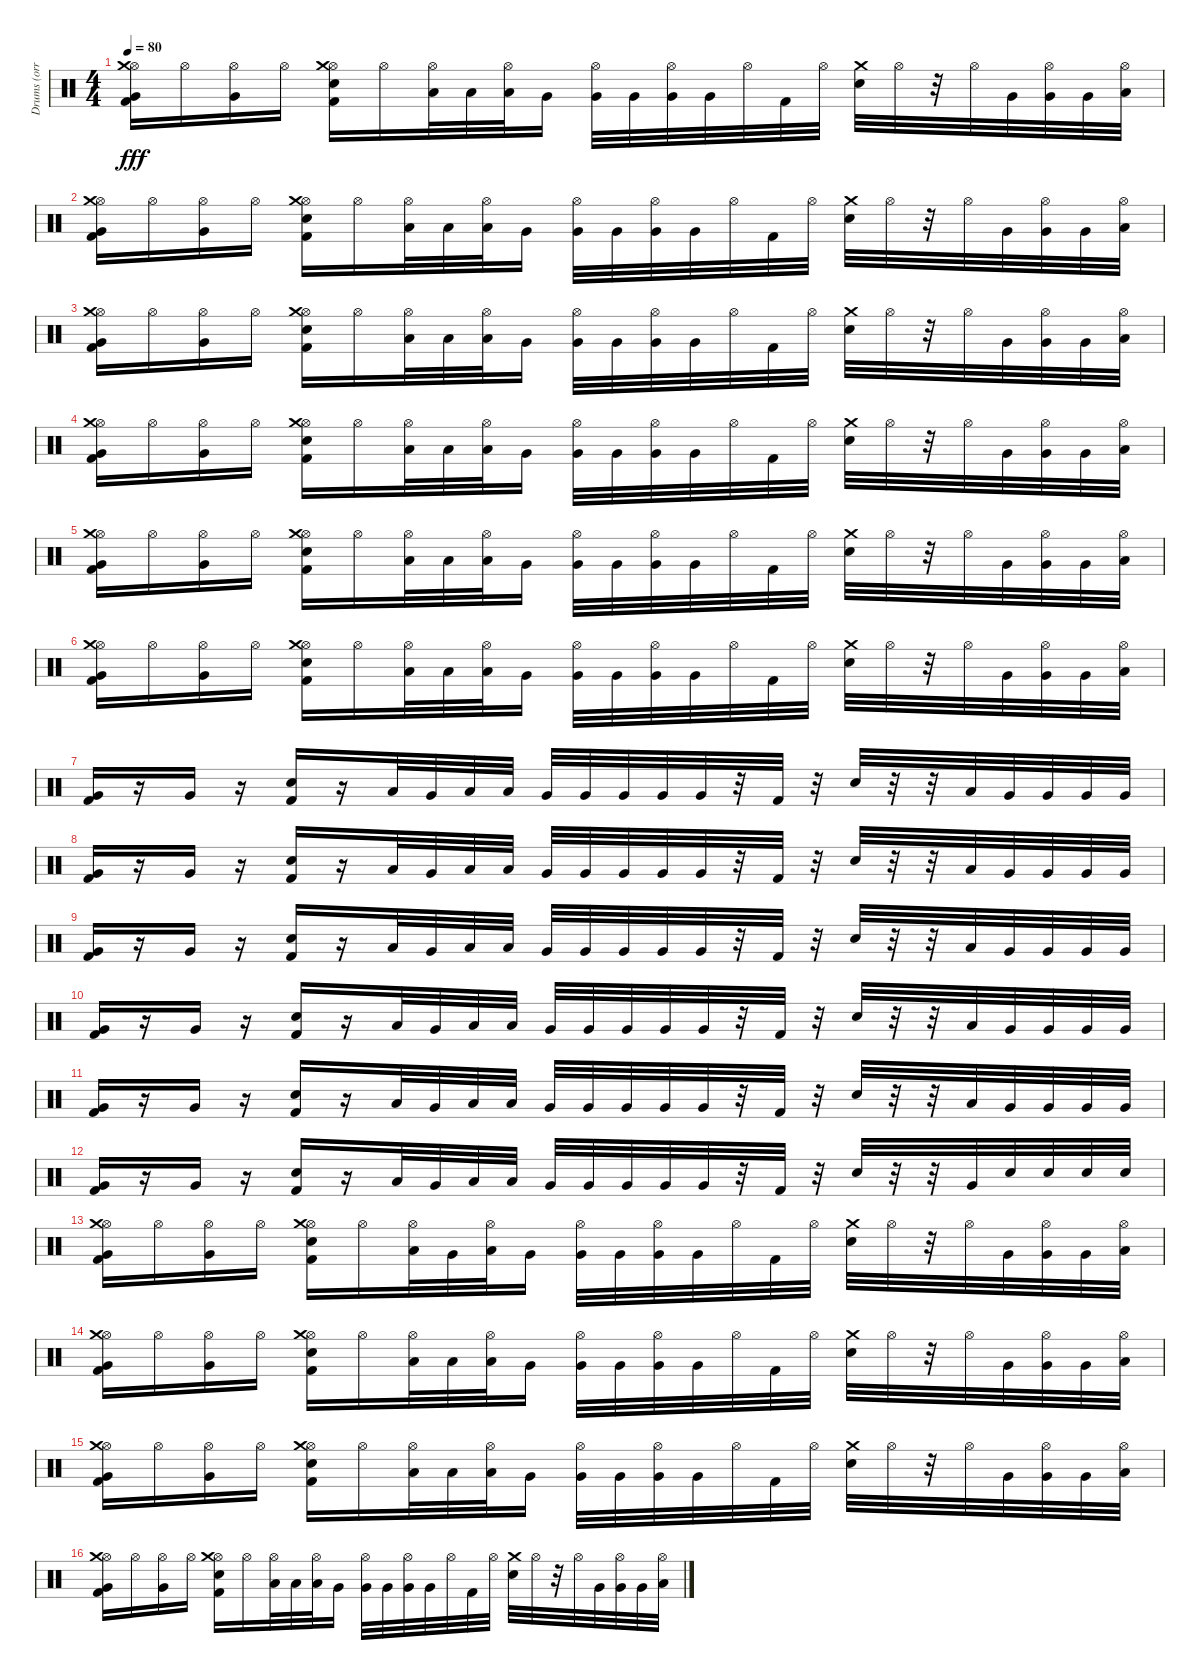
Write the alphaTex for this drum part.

\track ("Drums (orri páll dırason)" "Drums (orr") {instrument percussion}
\staff {score}
\articulation defaults
\ts (4 4)
\tempo 80
\clef neutral
\ks c
("Kick (hit) 2" "Hi-Hat (open)" "Crash medium (hit)" "Very Low Tom (hit)").16{dy fff} "Hi-Hat (open)".16 ("Hi-Hat (open)" "Very Low Tom (hit)").16 "Hi-Hat (open)".16 ("Kick (hit) 2" "Hi-Hat (open)" "Crash medium (hit)" "Electric Snare (hit)").16 "Hi-Hat (open)".16 ("Hi-Hat (open)" "Low Floor Tom (hit)").32 "Low Floor Tom (hit)".32 ("Hi-Hat (open)" "Low Floor Tom (hit)").32 "Very Low Tom (hit)".16 ("Hi-Hat (open)" "Very Low Tom (hit)").32 "Very Low Tom (hit)".32 ("Hi-Hat (open)" "Very Low Tom (hit)").32 "Very Low Tom (hit)".32 "Hi-Hat (open)".32 "Kick (hit) 2".32 "Hi-Hat (open)".32 ("Crash medium (hit)" "Electric Snare (hit)").32 "Hi-Hat (open)".32 r.32 "Hi-Hat (open)".32 "Very Low Tom (hit)".32 ("Hi-Hat (open)" "Very Low Tom (hit)").32 "Very Low Tom (hit)".32 ("Hi-Hat (open)" "Low Floor Tom (hit)").32 |
("Kick (hit) 2" "Hi-Hat (open)" "Crash medium (hit)" "Very Low Tom (hit)").16 "Hi-Hat (open)".16 ("Hi-Hat (open)" "Very Low Tom (hit)").16 "Hi-Hat (open)".16 ("Kick (hit) 2" "Hi-Hat (open)" "Crash medium (hit)" "Electric Snare (hit)").16 "Hi-Hat (open)".16 ("Hi-Hat (open)" "Low Floor Tom (hit)").32 "Low Floor Tom (hit)".32 ("Hi-Hat (open)" "Low Floor Tom (hit)").32 "Very Low Tom (hit)".16 ("Hi-Hat (open)" "Very Low Tom (hit)").32 "Very Low Tom (hit)".32 ("Hi-Hat (open)" "Very Low Tom (hit)").32 "Very Low Tom (hit)".32 "Hi-Hat (open)".32 "Kick (hit) 2".32 "Hi-Hat (open)".32 ("Crash medium (hit)" "Electric Snare (hit)").32 "Hi-Hat (open)".32 r.32 "Hi-Hat (open)".32 "Very Low Tom (hit)".32 ("Hi-Hat (open)" "Very Low Tom (hit)").32 "Very Low Tom (hit)".32 ("Hi-Hat (open)" "Low Floor Tom (hit)").32 |
("Kick (hit) 2" "Hi-Hat (open)" "Crash medium (hit)" "Very Low Tom (hit)").16 "Hi-Hat (open)".16 ("Hi-Hat (open)" "Very Low Tom (hit)").16 "Hi-Hat (open)".16 ("Kick (hit) 2" "Hi-Hat (open)" "Crash medium (hit)" "Electric Snare (hit)").16 "Hi-Hat (open)".16 ("Hi-Hat (open)" "Low Floor Tom (hit)").32 "Low Floor Tom (hit)".32 ("Hi-Hat (open)" "Low Floor Tom (hit)").32 "Very Low Tom (hit)".16 ("Hi-Hat (open)" "Very Low Tom (hit)").32 "Very Low Tom (hit)".32 ("Hi-Hat (open)" "Very Low Tom (hit)").32 "Very Low Tom (hit)".32 "Hi-Hat (open)".32 "Kick (hit) 2".32 "Hi-Hat (open)".32 ("Crash medium (hit)" "Electric Snare (hit)").32 "Hi-Hat (open)".32 r.32 "Hi-Hat (open)".32 "Very Low Tom (hit)".32 ("Hi-Hat (open)" "Very Low Tom (hit)").32 "Very Low Tom (hit)".32 ("Hi-Hat (open)" "Low Floor Tom (hit)").32 |
("Kick (hit) 2" "Hi-Hat (open)" "Crash medium (hit)" "Very Low Tom (hit)").16 "Hi-Hat (open)".16 ("Hi-Hat (open)" "Very Low Tom (hit)").16 "Hi-Hat (open)".16 ("Kick (hit) 2" "Hi-Hat (open)" "Crash medium (hit)" "Electric Snare (hit)").16 "Hi-Hat (open)".16 ("Hi-Hat (open)" "Low Floor Tom (hit)").32 "Low Floor Tom (hit)".32 ("Hi-Hat (open)" "Low Floor Tom (hit)").32 "Very Low Tom (hit)".16 ("Hi-Hat (open)" "Very Low Tom (hit)").32 "Very Low Tom (hit)".32 ("Hi-Hat (open)" "Very Low Tom (hit)").32 "Very Low Tom (hit)".32 "Hi-Hat (open)".32 "Kick (hit) 2".32 "Hi-Hat (open)".32 ("Crash medium (hit)" "Electric Snare (hit)").32 "Hi-Hat (open)".32 r.32 "Hi-Hat (open)".32 "Very Low Tom (hit)".32 ("Hi-Hat (open)" "Very Low Tom (hit)").32 "Very Low Tom (hit)".32 ("Hi-Hat (open)" "Low Floor Tom (hit)").32 |
("Kick (hit) 2" "Hi-Hat (open)" "Crash medium (hit)" "Very Low Tom (hit)").16 "Hi-Hat (open)".16 ("Hi-Hat (open)" "Very Low Tom (hit)").16 "Hi-Hat (open)".16 ("Kick (hit) 2" "Hi-Hat (open)" "Crash medium (hit)" "Electric Snare (hit)").16 "Hi-Hat (open)".16 ("Hi-Hat (open)" "Low Floor Tom (hit)").32 "Low Floor Tom (hit)".32 ("Hi-Hat (open)" "Low Floor Tom (hit)").32 "Very Low Tom (hit)".16 ("Hi-Hat (open)" "Very Low Tom (hit)").32 "Very Low Tom (hit)".32 ("Hi-Hat (open)" "Very Low Tom (hit)").32 "Very Low Tom (hit)".32 "Hi-Hat (open)".32 "Kick (hit) 2".32 "Hi-Hat (open)".32 ("Crash medium (hit)" "Electric Snare (hit)").32 "Hi-Hat (open)".32 r.32 "Hi-Hat (open)".32 "Very Low Tom (hit)".32 ("Hi-Hat (open)" "Very Low Tom (hit)").32 "Very Low Tom (hit)".32 ("Hi-Hat (open)" "Low Floor Tom (hit)").32 |
("Kick (hit) 2" "Hi-Hat (open)" "Crash medium (hit)" "Very Low Tom (hit)").16 "Hi-Hat (open)".16 ("Hi-Hat (open)" "Very Low Tom (hit)").16 "Hi-Hat (open)".16 ("Kick (hit) 2" "Hi-Hat (open)" "Crash medium (hit)" "Electric Snare (hit)").16 "Hi-Hat (open)".16 ("Hi-Hat (open)" "Low Floor Tom (hit)").32 "Low Floor Tom (hit)".32 ("Hi-Hat (open)" "Low Floor Tom (hit)").32 "Very Low Tom (hit)".16 ("Hi-Hat (open)" "Very Low Tom (hit)").32 "Very Low Tom (hit)".32 ("Hi-Hat (open)" "Very Low Tom (hit)").32 "Very Low Tom (hit)".32 "Hi-Hat (open)".32 "Kick (hit) 2".32 "Hi-Hat (open)".32 ("Crash medium (hit)" "Electric Snare (hit)").32 "Hi-Hat (open)".32 r.32 "Hi-Hat (open)".32 "Very Low Tom (hit)".32 ("Hi-Hat (open)" "Very Low Tom (hit)").32 "Very Low Tom (hit)".32 ("Hi-Hat (open)" "Low Floor Tom (hit)").32 |
("Kick (hit) 2" "Very Low Tom (hit)").16 r.16 "Very Low Tom (hit)".16 r.16 ("Kick (hit) 2" "Electric Snare (hit)").16 r.16 "Low Floor Tom (hit)".32 "Very Low Tom (hit)".32 "Low Floor Tom (hit)".32 "Low Floor Tom (hit)".32 "Very Low Tom (hit)".32 "Very Low Tom (hit)".32 "Very Low Tom (hit)".32 "Very Low Tom (hit)".32 "Very Low Tom (hit)".32 r.32 "Kick (hit) 2".32 r.32 "Electric Snare (hit)".32 r.32 r.32 "Low Floor Tom (hit)".32 "Very Low Tom (hit)".32 "Very Low Tom (hit)".32 "Very Low Tom (hit)".32 "Very Low Tom (hit)".32 |
("Kick (hit) 2" "Very Low Tom (hit)").16 r.16 "Very Low Tom (hit)".16 r.16 ("Kick (hit) 2" "Electric Snare (hit)").16 r.16 "Low Floor Tom (hit)".32 "Very Low Tom (hit)".32 "Low Floor Tom (hit)".32 "Low Floor Tom (hit)".32 "Very Low Tom (hit)".32 "Very Low Tom (hit)".32 "Very Low Tom (hit)".32 "Very Low Tom (hit)".32 "Very Low Tom (hit)".32 r.32 "Kick (hit) 2".32 r.32 "Electric Snare (hit)".32 r.32 r.32 "Low Floor Tom (hit)".32 "Very Low Tom (hit)".32 "Very Low Tom (hit)".32 "Very Low Tom (hit)".32 "Very Low Tom (hit)".32 |
("Kick (hit) 2" "Very Low Tom (hit)").16 r.16 "Very Low Tom (hit)".16 r.16 ("Kick (hit) 2" "Electric Snare (hit)").16 r.16 "Low Floor Tom (hit)".32 "Very Low Tom (hit)".32 "Low Floor Tom (hit)".32 "Low Floor Tom (hit)".32 "Very Low Tom (hit)".32 "Very Low Tom (hit)".32 "Very Low Tom (hit)".32 "Very Low Tom (hit)".32 "Very Low Tom (hit)".32 r.32 "Kick (hit) 2".32 r.32 "Electric Snare (hit)".32 r.32 r.32 "Low Floor Tom (hit)".32 "Very Low Tom (hit)".32 "Very Low Tom (hit)".32 "Very Low Tom (hit)".32 "Very Low Tom (hit)".32 |
("Kick (hit) 2" "Very Low Tom (hit)").16 r.16 "Very Low Tom (hit)".16 r.16 ("Kick (hit) 2" "Electric Snare (hit)").16 r.16 "Low Floor Tom (hit)".32 "Very Low Tom (hit)".32 "Low Floor Tom (hit)".32 "Low Floor Tom (hit)".32 "Very Low Tom (hit)".32 "Very Low Tom (hit)".32 "Very Low Tom (hit)".32 "Very Low Tom (hit)".32 "Very Low Tom (hit)".32 r.32 "Kick (hit) 2".32 r.32 "Electric Snare (hit)".32 r.32 r.32 "Low Floor Tom (hit)".32 "Very Low Tom (hit)".32 "Very Low Tom (hit)".32 "Very Low Tom (hit)".32 "Very Low Tom (hit)".32 |
("Kick (hit) 2" "Very Low Tom (hit)").16 r.16 "Very Low Tom (hit)".16 r.16 ("Kick (hit) 2" "Electric Snare (hit)").16 r.16 "Low Floor Tom (hit)".32 "Very Low Tom (hit)".32 "Low Floor Tom (hit)".32 "Low Floor Tom (hit)".32 "Very Low Tom (hit)".32 "Very Low Tom (hit)".32 "Very Low Tom (hit)".32 "Very Low Tom (hit)".32 "Very Low Tom (hit)".32 r.32 "Kick (hit) 2".32 r.32 "Electric Snare (hit)".32 r.32 r.32 "Low Floor Tom (hit)".32 "Very Low Tom (hit)".32 "Very Low Tom (hit)".32 "Very Low Tom (hit)".32 "Very Low Tom (hit)".32 |
("Kick (hit) 2" "Very Low Tom (hit)").16 r.16 "Very Low Tom (hit)".16 r.16 ("Kick (hit) 2" "Electric Snare (hit)").16 r.16 "Low Floor Tom (hit)".32 "Very Low Tom (hit)".32 "Low Floor Tom (hit)".32 "Low Floor Tom (hit)".32 "Very Low Tom (hit)".32 "Very Low Tom (hit)".32 "Very Low Tom (hit)".32 "Very Low Tom (hit)".32 "Very Low Tom (hit)".32 r.32 "Kick (hit) 2".32 r.32 "Electric Snare (hit)".32 r.32 r.32 "Very Low Tom (hit)".32 "Electric Snare (hit)".32 "Electric Snare (hit)".32 "Electric Snare (hit)".32 "Electric Snare (hit)".32 |
("Kick (hit) 2" "Hi-Hat (open)" "Crash medium (hit)" "Very Low Tom (hit)").16 "Hi-Hat (open)".16 ("Hi-Hat (open)" "Very Low Tom (hit)").16 "Hi-Hat (open)".16 ("Kick (hit) 2" "Hi-Hat (open)" "Crash medium (hit)" "Electric Snare (hit)").16 "Hi-Hat (open)".16 ("Hi-Hat (open)" "Low Floor Tom (hit)").32 "Very Low Tom (hit)".32 ("Hi-Hat (open)" "Low Floor Tom (hit)").32 "Very Low Tom (hit)".16 ("Hi-Hat (open)" "Very Low Tom (hit)").32 "Very Low Tom (hit)".32 ("Hi-Hat (open)" "Very Low Tom (hit)").32 "Very Low Tom (hit)".32 "Hi-Hat (open)".32 "Kick (hit) 2".32 "Hi-Hat (open)".32 ("Crash medium (hit)" "Electric Snare (hit)").32 "Hi-Hat (open)".32 r.32 "Hi-Hat (open)".32 "Very Low Tom (hit)".32 ("Hi-Hat (open)" "Very Low Tom (hit)").32 "Very Low Tom (hit)".32 ("Hi-Hat (open)" "Low Floor Tom (hit)").32 |
("Kick (hit) 2" "Hi-Hat (open)" "Crash medium (hit)" "Very Low Tom (hit)").16 "Hi-Hat (open)".16 ("Hi-Hat (open)" "Very Low Tom (hit)").16 "Hi-Hat (open)".16 ("Kick (hit) 2" "Hi-Hat (open)" "Crash medium (hit)" "Electric Snare (hit)").16 "Hi-Hat (open)".16 ("Hi-Hat (open)" "Low Floor Tom (hit)").32 "Low Floor Tom (hit)".32 ("Hi-Hat (open)" "Low Floor Tom (hit)").32 "Very Low Tom (hit)".16 ("Hi-Hat (open)" "Very Low Tom (hit)").32 "Very Low Tom (hit)".32 ("Hi-Hat (open)" "Very Low Tom (hit)").32 "Very Low Tom (hit)".32 "Hi-Hat (open)".32 "Kick (hit) 2".32 "Hi-Hat (open)".32 ("Crash medium (hit)" "Electric Snare (hit)").32 "Hi-Hat (open)".32 r.32 "Hi-Hat (open)".32 "Very Low Tom (hit)".32 ("Hi-Hat (open)" "Very Low Tom (hit)").32 "Very Low Tom (hit)".32 ("Hi-Hat (open)" "Low Floor Tom (hit)").32 |
("Kick (hit) 2" "Hi-Hat (open)" "Crash medium (hit)" "Very Low Tom (hit)").16 "Hi-Hat (open)".16 ("Hi-Hat (open)" "Very Low Tom (hit)").16 "Hi-Hat (open)".16 ("Kick (hit) 2" "Hi-Hat (open)" "Crash medium (hit)" "Electric Snare (hit)").16 "Hi-Hat (open)".16 ("Hi-Hat (open)" "Low Floor Tom (hit)").32 "Low Floor Tom (hit)".32 ("Hi-Hat (open)" "Low Floor Tom (hit)").32 "Very Low Tom (hit)".16 ("Hi-Hat (open)" "Very Low Tom (hit)").32 "Very Low Tom (hit)".32 ("Hi-Hat (open)" "Very Low Tom (hit)").32 "Very Low Tom (hit)".32 "Hi-Hat (open)".32 "Kick (hit) 2".32 "Hi-Hat (open)".32 ("Crash medium (hit)" "Electric Snare (hit)").32 "Hi-Hat (open)".32 r.32 "Hi-Hat (open)".32 "Very Low Tom (hit)".32 ("Hi-Hat (open)" "Very Low Tom (hit)").32 "Very Low Tom (hit)".32 ("Hi-Hat (open)" "Low Floor Tom (hit)").32 |
("Kick (hit) 2" "Hi-Hat (open)" "Crash medium (hit)" "Very Low Tom (hit)").16 "Hi-Hat (open)".16 ("Hi-Hat (open)" "Very Low Tom (hit)").16 "Hi-Hat (open)".16 ("Kick (hit) 2" "Hi-Hat (open)" "Crash medium (hit)" "Electric Snare (hit)").16 "Hi-Hat (open)".16 ("Hi-Hat (open)" "Low Floor Tom (hit)").32 "Low Floor Tom (hit)".32 ("Hi-Hat (open)" "Low Floor Tom (hit)").32 "Very Low Tom (hit)".16 ("Hi-Hat (open)" "Very Low Tom (hit)").32 "Very Low Tom (hit)".32 ("Hi-Hat (open)" "Very Low Tom (hit)").32 "Very Low Tom (hit)".32 "Hi-Hat (open)".32 "Kick (hit) 2".32 "Hi-Hat (open)".32 ("Crash medium (hit)" "Electric Snare (hit)").32 "Hi-Hat (open)".32 r.32 "Hi-Hat (open)".32 "Very Low Tom (hit)".32 ("Hi-Hat (open)" "Very Low Tom (hit)").32 "Very Low Tom (hit)".32 ("Hi-Hat (open)" "Low Floor Tom (hit)").32
